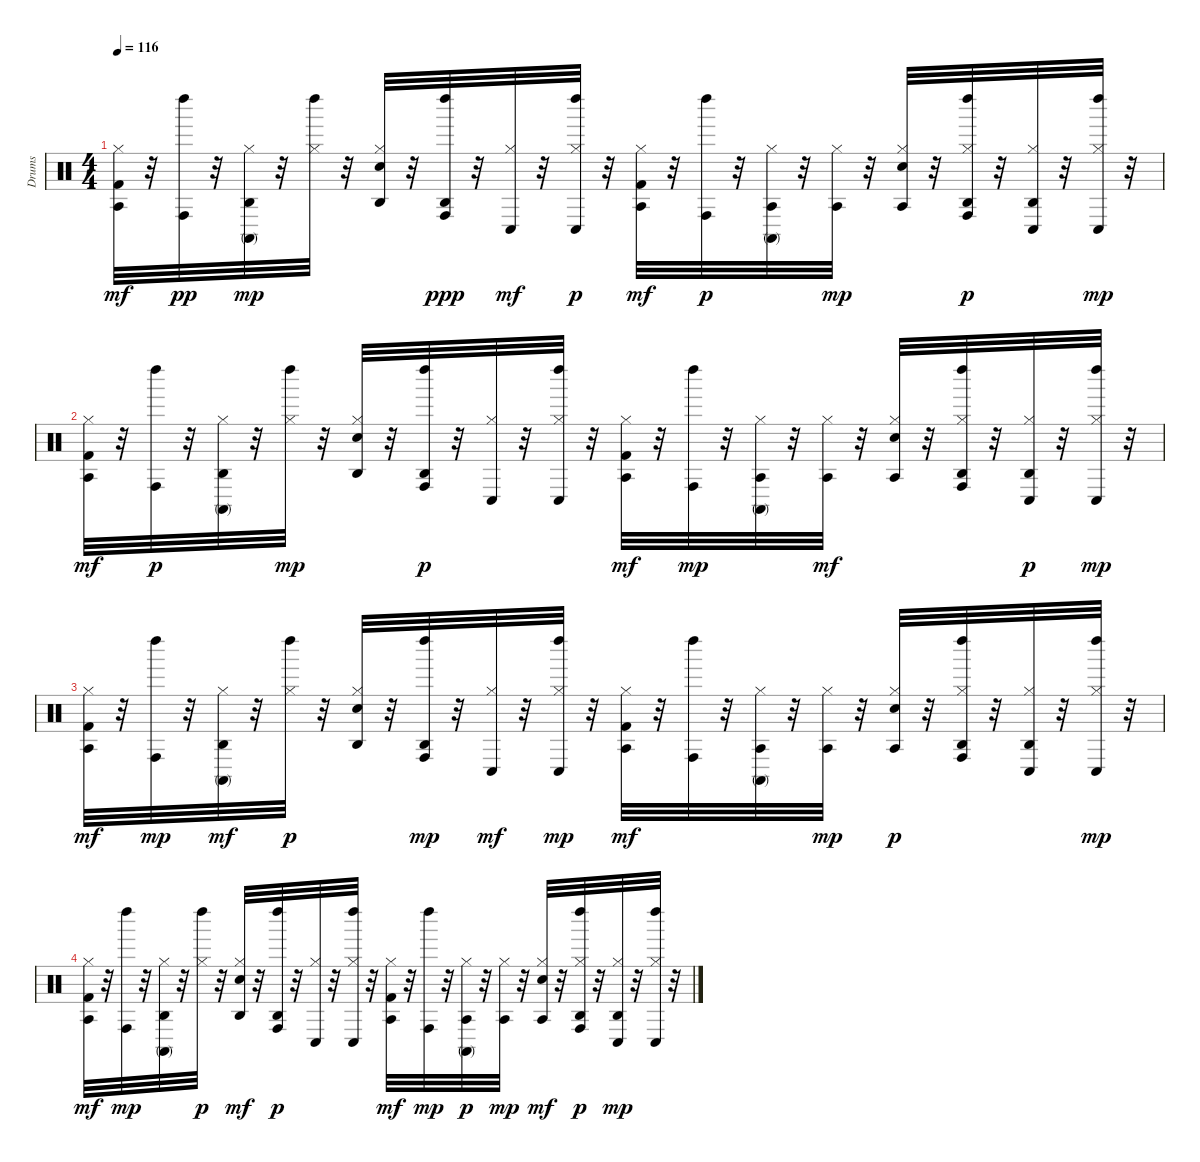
\track ("Drums" "Drums") {instrument percussion}
\staff {score}
\articulation defaults
\ts (4 4)
\tempo 116
\clef neutral
\ks c
("Agogo tow (hit)" "Kick (hit) 2" "Hi-Hat (closed)").32{dy mf} r.32 ("Conga high (hit)" "Left Maraca (hit)").32{dy pp} r.32 ("Hi-Hat (closed)" "Agogo high (hit)" "Conga high (mute)").32{dy mp} r.32 ("Left Maraca (hit)" "Hi-Hat (closed)").32 r.32 ("Hi-Hat (closed)" "Snare (hit) 2" "Agogo high (hit)").32 r.32 ("Conga high (hit)" "Agogo high (hit)" "Left Maraca (hit)").32{dy ppp} r.32 ("Conga low (hit)" "Hi-Hat (closed)").32{dy mf} r.32 ("Conga low (hit)" "Hi-Hat (closed)" "Left Maraca (hit)").32{dy p} r.32 ("Hi-Hat (closed)" "Agogo tow (hit)" "Kick (hit) 2").32{dy mf} r.32 ("Conga high (hit)" "Left Maraca (hit)").32{dy p} r.32 ("Hi-Hat (closed)" "Agogo tow (hit)" "Conga high (mute)").32 r.32 ("Agogo tow (hit)" "Hi-Hat (closed)").32{dy mp} r.32 ("Hi-Hat (closed)" "Snare (hit) 2" "Agogo tow (hit)").32 r.32 ("Hi-Hat (closed)" "Conga high (hit)" "Agogo high (hit)" "Left Maraca (hit)").32{dy p} r.32 ("Hi-Hat (closed)" "Conga low (hit)" "Agogo high (hit)").32 r.32 ("Left Maraca (hit)" "Conga low (hit)" "Hi-Hat (closed)").32{dy mp} r.32 |
("Agogo tow (hit)" "Hi-Hat (closed)" "Kick (hit) 2").32{dy mf} r.32 ("Conga high (hit)" "Left Maraca (hit)").32{dy p} r.32 ("Agogo high (hit)" "Hi-Hat (closed)" "Conga high (mute)").32 r.32 ("Left Maraca (hit)" "Hi-Hat (closed)").32{dy mp} r.32 ("Hi-Hat (closed)" "Agogo high (hit)" "Snare (hit) 2").32 r.32 ("Agogo high (hit)" "Conga high (hit)" "Left Maraca (hit)").32{dy p} r.32 ("Hi-Hat (closed)" "Conga low (hit)").32 r.32 ("Hi-Hat (closed)" "Left Maraca (hit)" "Conga low (hit)").32 r.32 ("Agogo tow (hit)" "Hi-Hat (closed)" "Kick (hit) 2").32{dy mf} r.32 ("Left Maraca (hit)" "Conga high (hit)").32{dy mp} r.32 ("Hi-Hat (closed)" "Agogo tow (hit)" "Conga high (mute)").32 r.32 ("Hi-Hat (closed)" "Agogo tow (hit)").32{dy mf} r.32 ("Hi-Hat (closed)" "Snare (hit) 2" "Agogo tow (hit)").32 r.32 ("Conga high (hit)" "Hi-Hat (closed)" "Left Maraca (hit)" "Agogo high (hit)").32 r.32 ("Conga low (hit)" "Hi-Hat (closed)" "Agogo high (hit)").32{dy p} r.32 ("Left Maraca (hit)" "Hi-Hat (closed)" "Conga low (hit)").32{dy mp} r.32 |
("Agogo tow (hit)" "Kick (hit) 2" "Hi-Hat (closed)").32{dy mf} r.32 ("Left Maraca (hit)" "Conga high (hit)").32{dy mp} r.32 ("Conga high (mute)" "Agogo high (hit)" "Hi-Hat (closed)").32{dy mf} r.32 ("Hi-Hat (closed)" "Left Maraca (hit)").32{dy p} r.32 ("Snare (hit) 2" "Hi-Hat (closed)" "Agogo high (hit)").32 r.32 ("Agogo high (hit)" "Left Maraca (hit)" "Conga high (hit)").32{dy mp} r.32 ("Conga low (hit)" "Hi-Hat (closed)").32{dy mf} r.32 ("Conga low (hit)" "Hi-Hat (closed)" "Left Maraca (hit)").32{dy mp} r.32 ("Agogo tow (hit)" "Hi-Hat (closed)" "Kick (hit) 2").32{dy mf} r.32 ("Left Maraca (hit)" "Conga high (hit)").32 r.32 ("Conga high (mute)" "Agogo tow (hit)" "Hi-Hat (closed)").32 r.32 ("Agogo tow (hit)" "Hi-Hat (closed)").32{dy mp} r.32 ("Hi-Hat (closed)" "Agogo tow (hit)" "Snare (hit) 2").32{dy p} r.32 ("Hi-Hat (closed)" "Agogo high (hit)" "Left Maraca (hit)" "Conga high (hit)").32 r.32 ("Hi-Hat (closed)" "Agogo high (hit)" "Conga low (hit)").32 r.32 ("Conga low (hit)" "Hi-Hat (closed)" "Left Maraca (hit)").32{dy mp} r.32 |
("Hi-Hat (closed)" "Agogo tow (hit)" "Kick (hit) 2").32{dy mf} r.32 ("Left Maraca (hit)" "Conga high (hit)").32{dy mp} r.32 ("Conga high (mute)" "Hi-Hat (closed)" "Agogo high (hit)").32 r.32 ("Hi-Hat (closed)" "Left Maraca (hit)").32{dy p} r.32 ("Agogo high (hit)" "Hi-Hat (closed)" "Snare (hit) 2").32{dy mf} r.32 ("Agogo high (hit)" "Conga high (hit)" "Left Maraca (hit)").32{dy p} r.32 ("Hi-Hat (closed)" "Conga low (hit)").32 r.32 ("Left Maraca (hit)" "Hi-Hat (closed)" "Conga low (hit)").32 r.32 ("Hi-Hat (closed)" "Kick (hit) 2" "Agogo tow (hit)").32{dy mf} r.32 ("Conga high (hit)" "Left Maraca (hit)").32{dy mp} r.32 ("Agogo tow (hit)" "Hi-Hat (closed)" "Conga high (mute)").32{dy p} r.32 ("Hi-Hat (closed)" "Agogo tow (hit)").32{dy mp} r.32 ("Agogo tow (hit)" "Snare (hit) 2" "Hi-Hat (closed)").32{dy mf} r.32 ("Hi-Hat (closed)" "Agogo high (hit)" "Conga high (hit)" "Left Maraca (hit)").32{dy p} r.32 ("Hi-Hat (closed)" "Agogo high (hit)" "Conga low (hit)").32{dy mp} r.32 ("Left Maraca (hit)" "Hi-Hat (closed)" "Conga low (hit)").32 r.32
